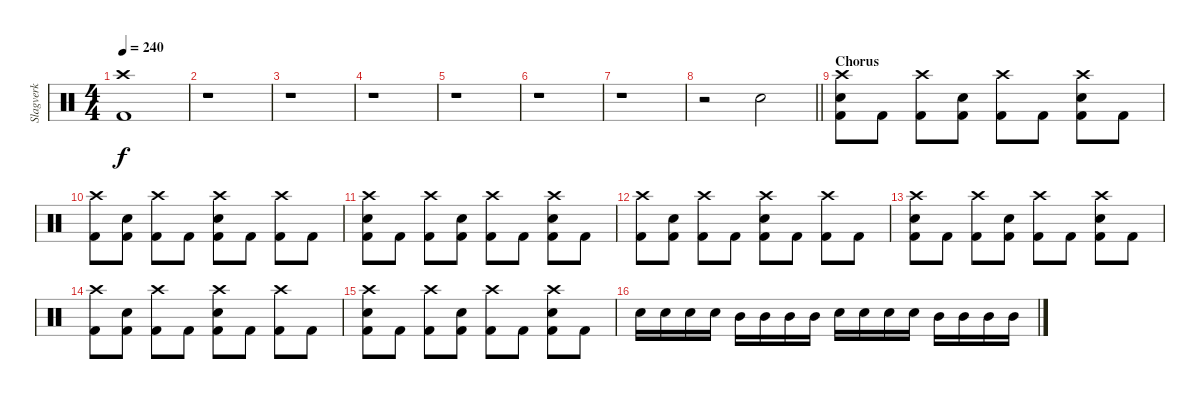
\track ("Slagverk" "Slagverk") {instrument percussion}
\staff {score}
\articulation defaults
\ts (4 4)
\section ("" "")
\tempo 240
\clef neutral
\ks c
("Crash high (hit)" "Kick (hit) 2").1{dy f} |
r.1 |
r.1 |
r.1 |
r.1 |
r.1 |
r.1 |
\barLineRight lightlight
r.2 "Electric Snare (hit)".2 |
\section ("" "Chorus")
("Crash high (hit)" "Electric Snare (hit)" "Kick (hit) 2").8 "Kick (hit) 2".8 ("Crash high (hit)" "Kick (hit) 2").8 ("Electric Snare (hit)" "Kick (hit) 2").8 ("Crash high (hit)" "Kick (hit) 2").8 "Kick (hit) 2".8 ("Crash high (hit)" "Electric Snare (hit)" "Kick (hit) 2").8 "Kick (hit) 2".8 |
("Crash high (hit)" "Kick (hit) 2").8 ("Electric Snare (hit)" "Kick (hit) 2").8 ("Crash high (hit)" "Kick (hit) 2").8 "Kick (hit) 2".8 ("Crash high (hit)" "Electric Snare (hit)" "Kick (hit) 2").8 "Kick (hit) 2".8 ("Crash high (hit)" "Kick (hit) 2").8 "Kick (hit) 2".8 |
("Crash high (hit)" "Electric Snare (hit)" "Kick (hit) 2").8 "Kick (hit) 2".8 ("Crash high (hit)" "Kick (hit) 2").8 ("Electric Snare (hit)" "Kick (hit) 2").8 ("Crash high (hit)" "Kick (hit) 2").8 "Kick (hit) 2".8 ("Crash high (hit)" "Electric Snare (hit)" "Kick (hit) 2").8 "Kick (hit) 2".8 |
("Crash high (hit)" "Kick (hit) 2").8 ("Electric Snare (hit)" "Kick (hit) 2").8 ("Crash high (hit)" "Kick (hit) 2").8 "Kick (hit) 2".8 ("Crash high (hit)" "Electric Snare (hit)" "Kick (hit) 2").8 "Kick (hit) 2".8 ("Crash high (hit)" "Kick (hit) 2").8 "Kick (hit) 2".8 |
("Crash high (hit)" "Electric Snare (hit)" "Kick (hit) 2").8 "Kick (hit) 2".8 ("Crash high (hit)" "Kick (hit) 2").8 ("Electric Snare (hit)" "Kick (hit) 2").8 ("Crash high (hit)" "Kick (hit) 2").8 "Kick (hit) 2".8 ("Crash high (hit)" "Electric Snare (hit)" "Kick (hit) 2").8 "Kick (hit) 2".8 |
("Crash high (hit)" "Kick (hit) 2").8 ("Electric Snare (hit)" "Kick (hit) 2").8 ("Crash high (hit)" "Kick (hit) 2").8 "Kick (hit) 2".8 ("Crash high (hit)" "Electric Snare (hit)" "Kick (hit) 2").8 "Kick (hit) 2".8 ("Crash high (hit)" "Kick (hit) 2").8 "Kick (hit) 2".8 |
("Crash high (hit)" "Electric Snare (hit)" "Kick (hit) 2").8 "Kick (hit) 2".8 ("Crash high (hit)" "Kick (hit) 2").8 ("Electric Snare (hit)" "Kick (hit) 2").8 ("Crash high (hit)" "Kick (hit) 2").8 "Kick (hit) 2".8 ("Crash high (hit)" "Electric Snare (hit)" "Kick (hit) 2").8 "Kick (hit) 2".8 |
"Electric Snare (hit)".16 "Electric Snare (hit)".16 "Electric Snare (hit)".16 "Electric Snare (hit)".16 "Mid Tom (hit)".16 "Mid Tom (hit)".16 "Mid Tom (hit)".16 "Mid Tom (hit)".16 "Electric Snare (hit)".16 "Electric Snare (hit)".16 "Electric Snare (hit)".16 "Electric Snare (hit)".16 "Mid Tom (hit)".16 "Mid Tom (hit)".16 "Mid Tom (hit)".16 "Mid Tom (hit)".16
